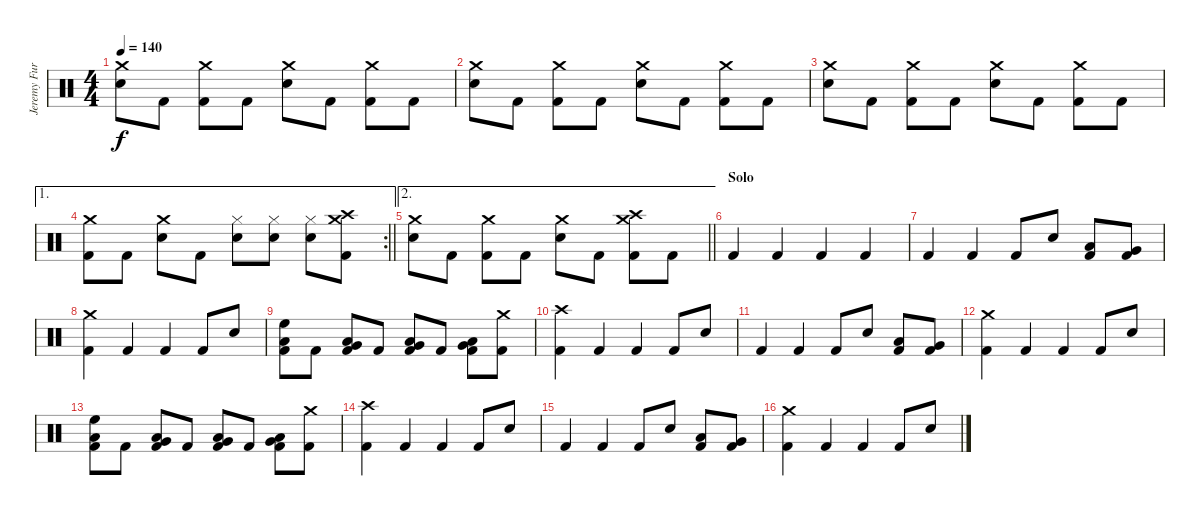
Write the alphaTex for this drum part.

\track ("Jeremy Furstenfeld" "Jeremy Fur") {instrument percussion}
\staff {score}
\articulation defaults
\ts (4 4)
\tempo 140
\clef neutral
\ks c
("Crash medium (hit)" "Snare (hit) 2").8{dy f} "Kick (hit) 2".8 ("Crash medium (hit)" "Kick (hit) 2").8 "Kick (hit) 2".8 ("Crash medium (hit)" "Snare (hit) 2").8 "Kick (hit) 2".8 ("Crash medium (hit)" "Kick (hit) 2").8 "Kick (hit) 2".8 |
("Crash medium (hit)" "Snare (hit) 2").8 "Kick (hit) 2".8 ("Crash medium (hit)" "Kick (hit) 2").8 "Kick (hit) 2".8 ("Crash medium (hit)" "Snare (hit) 2").8 "Kick (hit) 2".8 ("Crash medium (hit)" "Kick (hit) 2").8 "Kick (hit) 2".8 |
("Crash medium (hit)" "Snare (hit) 2").8 "Kick (hit) 2".8 ("Crash medium (hit)" "Kick (hit) 2").8 "Kick (hit) 2".8 ("Crash medium (hit)" "Snare (hit) 2").8 "Kick (hit) 2".8 ("Crash medium (hit)" "Kick (hit) 2").8 "Kick (hit) 2".8 |
\ae 1
\rc 2
\barLineRight lightlight
("Crash medium (hit)" "Kick (hit) 2").8 "Kick (hit) 2".8 ("Crash medium (hit)" "Snare (hit) 2").8 "Kick (hit) 2".8 ("Hi-Hat (closed)" "Snare (hit) 2").8 ("Hi-Hat (closed)" "Snare (hit) 2").8 ("Hi-Hat (closed)" "Snare (hit) 2").8 ("Crash medium (hit)" "Crash high (hit)" "Kick (hit) 2").8 |
\ae 2
\barLineRight lightlight
("Crash medium (hit)" "Snare (hit) 2").8 "Kick (hit) 2".8 ("Crash medium (hit)" "Kick (hit) 2").8 "Kick (hit) 2".8 ("Crash medium (hit)" "Snare (hit) 2").8 "Kick (hit) 2".8 ("Crash medium (hit)" "Crash high (hit)" "Kick (hit) 2").8 "Kick (hit) 2".8 |
\section ("" "Solo")
"Kick (hit) 2".4 "Kick (hit) 2".4 "Kick (hit) 2".4 "Kick (hit) 2".4 |
"Kick (hit) 2".4 "Kick (hit) 2".4 "Kick (hit) 2".8 "Snare (hit) 2".8 ("Low Tom (hit)" "Kick (hit) 2").8 ("Very Low Tom (hit)" "Kick (hit) 2").8 |
("Crash medium (hit)" "Kick (hit) 2").4 "Kick (hit) 2".4 "Kick (hit) 2".4 "Kick (hit) 2".8 "Snare (hit) 2".8 |
("High Floor Tom (hit)" "Low Tom (hit)" "Kick (hit) 2").8 "Kick (hit) 2".8 ("Low Tom (hit)" "Very Low Tom (hit)" "Kick (hit) 2").8 "Kick (hit) 2".8 ("Very Low Tom (hit)" "Low Floor Tom (hit)" "Kick (hit) 2").8 "Kick (hit) 2".8 ("Very Low Tom (hit)" "Low Floor Tom (hit)" "Kick (hit) 2").8 ("Crash medium (hit)" "Kick (hit) 2").8 |
("Crash high (hit)" "Kick (hit) 2").4 "Kick (hit) 2".4 "Kick (hit) 2".4 "Kick (hit) 2".8 "Snare (hit) 2".8 |
"Kick (hit) 2".4 "Kick (hit) 2".4 "Kick (hit) 2".8 "Snare (hit) 2".8 ("Low Tom (hit)" "Kick (hit) 2").8 ("Very Low Tom (hit)" "Kick (hit) 2").8 |
("Crash medium (hit)" "Kick (hit) 2").4 "Kick (hit) 2".4 "Kick (hit) 2".4 "Kick (hit) 2".8 "Snare (hit) 2".8 |
("High Floor Tom (hit)" "Low Tom (hit)" "Kick (hit) 2").8 "Kick (hit) 2".8 ("Low Tom (hit)" "Very Low Tom (hit)" "Kick (hit) 2").8 "Kick (hit) 2".8 ("Very Low Tom (hit)" "Low Floor Tom (hit)" "Kick (hit) 2").8 "Kick (hit) 2".8 ("Very Low Tom (hit)" "Low Floor Tom (hit)" "Kick (hit) 2").8 ("Crash medium (hit)" "Kick (hit) 2").8 |
("Crash high (hit)" "Kick (hit) 2").4 "Kick (hit) 2".4 "Kick (hit) 2".4 "Kick (hit) 2".8 "Snare (hit) 2".8 |
"Kick (hit) 2".4 "Kick (hit) 2".4 "Kick (hit) 2".8 "Snare (hit) 2".8 ("Low Tom (hit)" "Kick (hit) 2").8 ("Very Low Tom (hit)" "Kick (hit) 2").8 |
("Crash medium (hit)" "Kick (hit) 2").4 "Kick (hit) 2".4 "Kick (hit) 2".4 "Kick (hit) 2".8 "Snare (hit) 2".8
